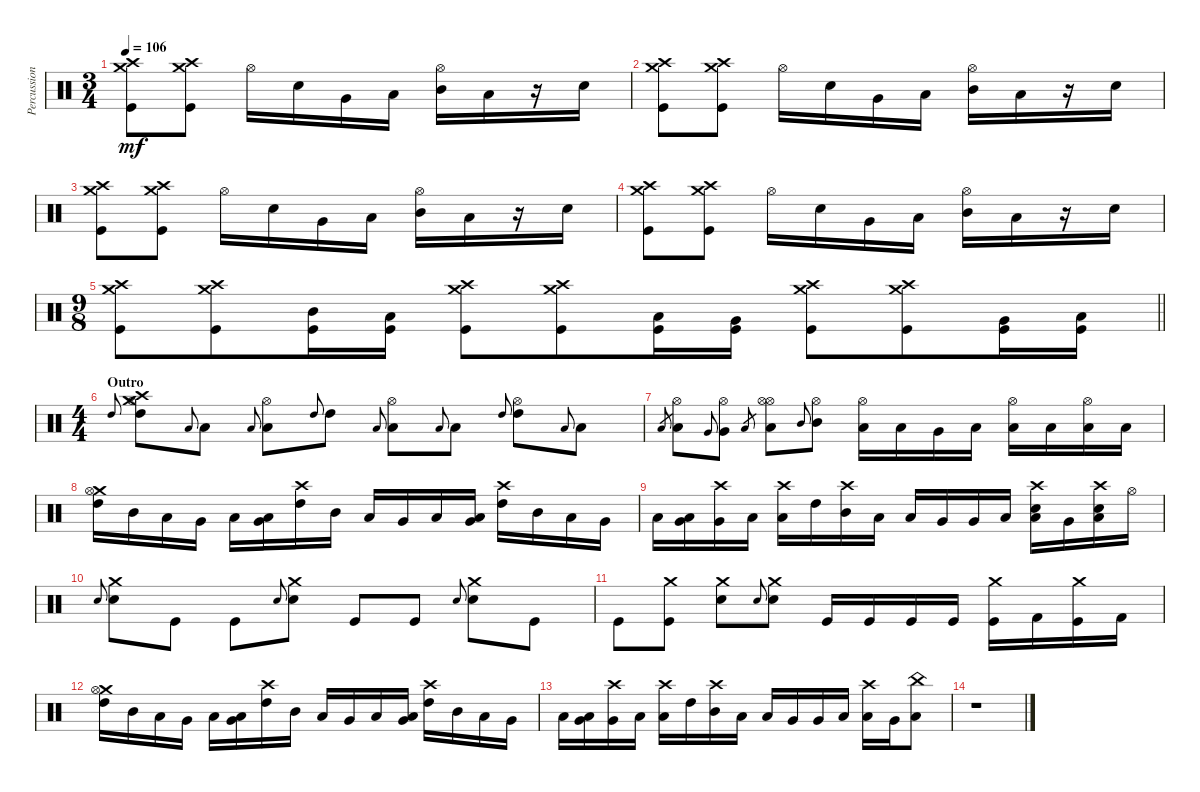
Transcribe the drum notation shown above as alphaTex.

\track ("Percussion" "Percussion") {instrument percussion}
\staff {score}
\articulation defaults
\ts (3 4)
\tempo 106
\clef neutral
\ks c
("Crash high (hit)" "Crash medium (hit)" "Kick (hit)").8{dy mf} ("Crash high (hit)" "Crash medium (hit)" "Kick (hit)").8 "Hi-Hat (open)".16 "Snare (hit) 2".16 "Very Low Tom (hit)".16 "Low Tom (hit)".16 ("Hi-Hat (open)" "Mid Tom (hit)").16 "Low Tom (hit)".16 r.16 "Snare (hit) 2".16 |
("Crash high (hit)" "Crash medium (hit)" "Kick (hit)").8 ("Crash high (hit)" "Crash medium (hit)" "Kick (hit)").8 "Hi-Hat (open)".16 "Snare (hit) 2".16 "Very Low Tom (hit)".16 "Low Tom (hit)".16 ("Hi-Hat (open)" "Mid Tom (hit)").16 "Low Tom (hit)".16 r.16 "Snare (hit) 2".16 |
("Crash high (hit)" "Crash medium (hit)" "Kick (hit)").8 ("Crash high (hit)" "Crash medium (hit)" "Kick (hit)").8 "Hi-Hat (open)".16 "Snare (hit) 2".16 "Very Low Tom (hit)".16 "Low Tom (hit)".16 ("Hi-Hat (open)" "Mid Tom (hit)").16 "Low Tom (hit)".16 r.16 "Snare (hit) 2".16 |
("Crash high (hit)" "Crash medium (hit)" "Kick (hit)").8 ("Crash high (hit)" "Crash medium (hit)" "Kick (hit)").8 "Hi-Hat (open)".16 "Snare (hit) 2".16 "Very Low Tom (hit)".16 "Low Tom (hit)".16 ("Hi-Hat (open)" "Mid Tom (hit)").16 "Low Tom (hit)".16 r.16 "Snare (hit) 2".16 |
\ts (9 8)
\barLineRight lightlight
("Crash high (hit)" "Crash medium (hit)" "Kick (hit)").8 ("Crash high (hit)" "Crash medium (hit)" "Kick (hit)").8 ("Mid Tom (hit)" "Kick (hit)").16 ("Low Tom (hit)" "Kick (hit)").16 ("Crash high (hit)" "Crash medium (hit)" "Kick (hit)").8 ("Crash high (hit)" "Crash medium (hit)" "Kick (hit)").8 ("Low Tom (hit)" "Kick (hit)").16 ("Very Low Tom (hit)" "Kick (hit)").16 ("Crash high (hit)" "Crash medium (hit)" "Kick (hit)").8 ("Crash high (hit)" "Crash medium (hit)" "Kick (hit)").8 ("Very Low Tom (hit)" "Kick (hit)").16 ("Low Floor Tom (hit)" "Kick (hit)").16 |
\ts (4 4)
\section ("" "Outro")
"High Tom (hit)".8{gr onbeat} ("Crash high (hit)" "Crash medium (hit)" "Hi-Hat (open)" "High Tom (hit)").8 "Low Tom (hit)".8{gr onbeat} "Low Tom (hit)".8 "Low Floor Tom (hit)".8{gr onbeat} ("Hi-Hat (open)" "Low Floor Tom (hit)").8 "High Tom (hit)".8{gr onbeat} "High Tom (hit)".8 "Low Tom (hit)".8{gr onbeat} ("Hi-Hat (open)" "Low Tom (hit)").8 "Low Floor Tom (hit)".8{gr onbeat} "Low Floor Tom (hit)".8 "High Tom (hit)".8{gr onbeat} ("Hi-Hat (open)" "High Tom (hit)").8 "Low Tom (hit)".8{gr onbeat} "Low Tom (hit)".8 |
"Low Floor Tom (hit)".8{gr} ("Hi-Hat (open)" "Low Floor Tom (hit)").8 "Very Low Tom (hit)".8{gr onbeat} ("Hi-Hat (open)" "Very Low Tom (hit)").8 "Low Tom (hit)".8{gr} ("Hi-Hat (open)" "Hi-Hat (open)" "Low Tom (hit)").8 "Mid Tom (hit)".8{gr onbeat} ("Hi-Hat (open)" "Mid Tom (hit)").8 ("Hi-Hat (open)" "Low Tom (hit)").16 "Low Floor Tom (hit)".16 "Very Low Tom (hit)".16 "Low Floor Tom (hit)".16 ("Hi-Hat (open)" "Low Floor Tom (hit)").16 "Low Floor Tom (hit)".16 ("Hi-Hat (open)" "Low Tom (hit)").16 "Low Tom (hit)".16 |
("Crash medium (hit)" "Hi-Hat (open)" "High Tom (hit)").16 "Mid Tom (hit)".16 "Low Tom (hit)".16 "Very Low Tom (hit)".16 "Low Floor Tom (hit)".16 ("Low Floor Tom (hit)" "Very Low Tom (hit)").16 ("Crash high (hit)" "High Tom (hit)").16 "Mid Tom (hit)".16 "Low Tom (hit)".16 "Very Low Tom (hit)".16 "Low Floor Tom (hit)".16 ("Low Floor Tom (hit)" "Very Low Tom (hit)").16 ("Crash high (hit)" "High Tom (hit)").16 "Mid Tom (hit)".16 "Low Tom (hit)".16 "Very Low Tom (hit)".16 |
"Low Floor Tom (hit)".16 ("Low Floor Tom (hit)" "Very Low Tom (hit)").16 ("Crash high (hit)" "Very Low Tom (hit)").16 "Low Tom (hit)".16 ("Crash high (hit)" "Low Tom (hit)").16 "High Tom (hit)".16 ("Crash high (hit)" "Mid Tom (hit)").16 "Low Tom (hit)".16 "Low Tom (hit)".16 "Very Low Tom (hit)".16 "Very Low Tom (hit)".16 "Low Floor Tom (hit)".16 ("Crash high (hit)" "Low Floor Tom (hit)" "Snare (hit) 2").16 "Very Low Tom (hit)".16 ("Crash high (hit)" "Low Tom (hit)" "Snare (hit) 2").16 "Hi-Hat (open)".16 |
"Snare (hit) 2".8{gr onbeat} ("Crash medium (hit)" "Snare (hit) 2").8 "Kick (hit)".8 "Kick (hit)".8 "Snare (hit) 2".8{gr onbeat} ("Crash medium (hit)" "Snare (hit) 2").8 "Kick (hit)".8 "Kick (hit)".8 "Snare (hit) 2".8{gr onbeat} ("Crash medium (hit)" "Snare (hit) 2").8 "Kick (hit)".8 |
"Kick (hit)".8 ("Crash medium (hit)" "Kick (hit)").8 ("Crash medium (hit)" "Snare (hit) 2").8 "Snare (hit) 2".8{gr onbeat} ("Crash medium (hit)" "Snare (hit) 2").8 "Kick (hit)".16 "Kick (hit)".16 "Kick (hit)".16 "Kick (hit)".16 ("Crash medium (hit)" "Kick (hit)").16 "Kick (hit) 2".16 ("Crash medium (hit)" "Kick (hit)").16 "Kick (hit) 2".16 |
("Crash medium (hit)" "Hi-Hat (open)" "High Tom (hit)").16 "Mid Tom (hit)".16 "Low Tom (hit)".16 "Very Low Tom (hit)".16 "Low Floor Tom (hit)".16 ("Low Floor Tom (hit)" "Very Low Tom (hit)").16 ("Crash high (hit)" "High Tom (hit)").16 "Mid Tom (hit)".16 "Low Tom (hit)".16 "Very Low Tom (hit)".16 "Low Floor Tom (hit)".16 ("Low Floor Tom (hit)" "Very Low Tom (hit)").16 ("Crash high (hit)" "High Tom (hit)").16 "Mid Tom (hit)".16 "Low Tom (hit)".16 "Very Low Tom (hit)".16 |
"Low Floor Tom (hit)".16 ("Low Floor Tom (hit)" "Very Low Tom (hit)").16 ("Crash high (hit)" "Very Low Tom (hit)").16 "Low Tom (hit)".16 ("Crash high (hit)" "Low Tom (hit)").16 "High Tom (hit)".16 ("Crash high (hit)" "Mid Tom (hit)").16 "Low Tom (hit)".16 "Low Tom (hit)".16 "Very Low Tom (hit)".16 "Very Low Tom (hit)".16 "Low Floor Tom (hit)".16 ("Crash high (hit)" "Low Floor Tom (hit)").16 "Very Low Tom (hit)".16 ("China (hit)" "Low Tom (hit)").8 |
r.1
